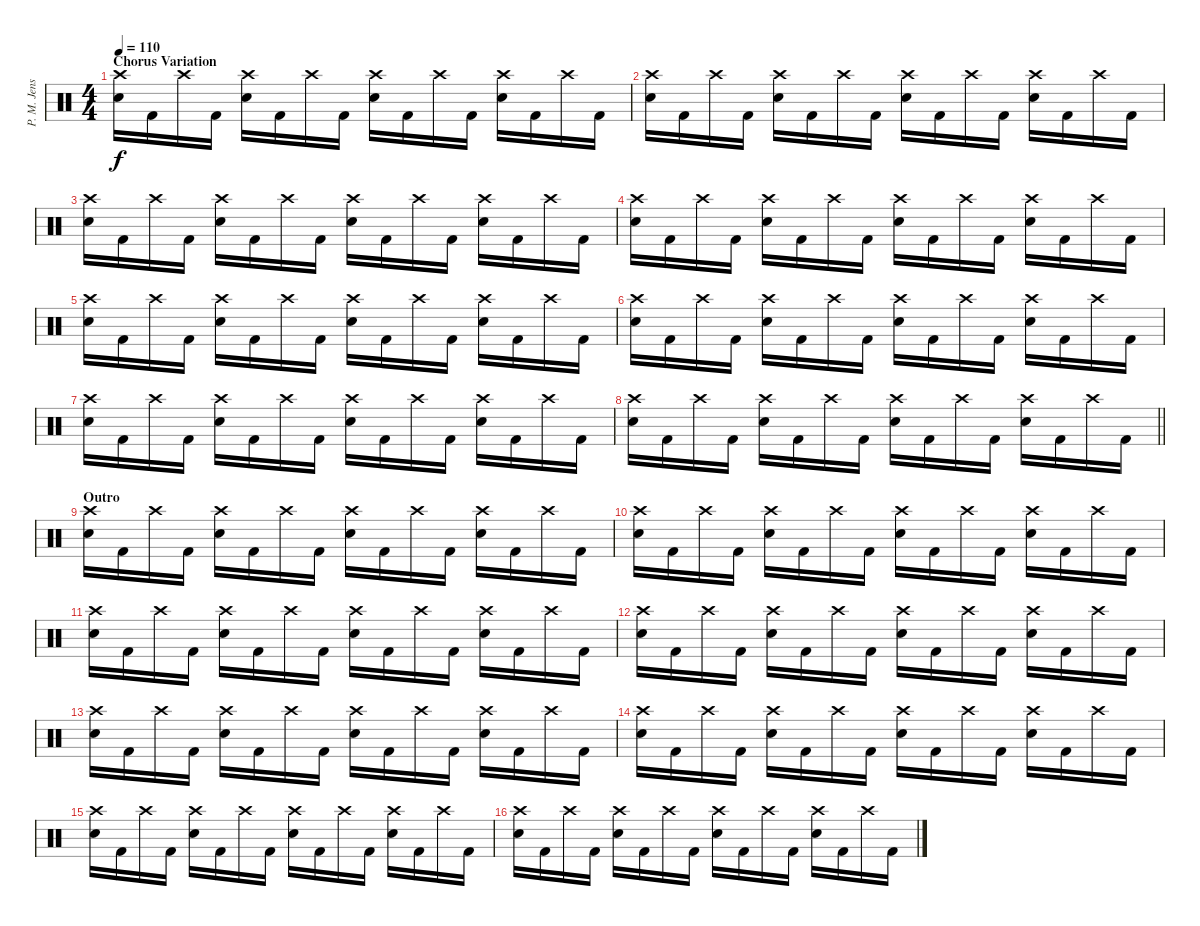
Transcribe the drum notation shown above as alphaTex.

\track ("P. M. Jensen" "P. M. Jens") {instrument percussion}
\staff {score}
\articulation defaults
\ts (4 4)
\section ("" "Chorus Variation")
\tempo 110
\clef neutral
\ks c
("Crash high (hit)" "Electric Snare (hit)").16{dy f} "Kick (hit) 2".16 "Crash high (hit)".16 "Kick (hit) 2".16 ("Crash high (hit)" "Electric Snare (hit)").16 "Kick (hit) 2".16 "Crash high (hit)".16 "Kick (hit) 2".16 ("Crash high (hit)" "Electric Snare (hit)").16 "Kick (hit) 2".16 "Crash high (hit)".16 "Kick (hit) 2".16 ("Crash high (hit)" "Electric Snare (hit)").16 "Kick (hit) 2".16 "Crash high (hit)".16 "Kick (hit) 2".16 |
("Crash high (hit)" "Electric Snare (hit)").16 "Kick (hit) 2".16 "Crash high (hit)".16 "Kick (hit) 2".16 ("Crash high (hit)" "Electric Snare (hit)").16 "Kick (hit) 2".16 "Crash high (hit)".16 "Kick (hit) 2".16 ("Crash high (hit)" "Electric Snare (hit)").16 "Kick (hit) 2".16 "Crash high (hit)".16 "Kick (hit) 2".16 ("Crash high (hit)" "Electric Snare (hit)").16 "Kick (hit) 2".16 "Crash high (hit)".16 "Kick (hit) 2".16 |
("Crash high (hit)" "Electric Snare (hit)").16 "Kick (hit) 2".16 "Crash high (hit)".16 "Kick (hit) 2".16 ("Crash high (hit)" "Electric Snare (hit)").16 "Kick (hit) 2".16 "Crash high (hit)".16 "Kick (hit) 2".16 ("Crash high (hit)" "Electric Snare (hit)").16 "Kick (hit) 2".16 "Crash high (hit)".16 "Kick (hit) 2".16 ("Crash high (hit)" "Electric Snare (hit)").16 "Kick (hit) 2".16 "Crash high (hit)".16 "Kick (hit) 2".16 |
("Crash high (hit)" "Electric Snare (hit)").16 "Kick (hit) 2".16 "Crash high (hit)".16 "Kick (hit) 2".16 ("Crash high (hit)" "Electric Snare (hit)").16 "Kick (hit) 2".16 "Crash high (hit)".16 "Kick (hit) 2".16 ("Crash high (hit)" "Electric Snare (hit)").16 "Kick (hit) 2".16 "Crash high (hit)".16 "Kick (hit) 2".16 ("Crash high (hit)" "Electric Snare (hit)").16 "Kick (hit) 2".16 "Crash high (hit)".16 "Kick (hit) 2".16 |
("Crash high (hit)" "Electric Snare (hit)").16 "Kick (hit) 2".16 "Crash high (hit)".16 "Kick (hit) 2".16 ("Crash high (hit)" "Electric Snare (hit)").16 "Kick (hit) 2".16 "Crash high (hit)".16 "Kick (hit) 2".16 ("Crash high (hit)" "Electric Snare (hit)").16 "Kick (hit) 2".16 "Crash high (hit)".16 "Kick (hit) 2".16 ("Crash high (hit)" "Electric Snare (hit)").16 "Kick (hit) 2".16 "Crash high (hit)".16 "Kick (hit) 2".16 |
("Crash high (hit)" "Electric Snare (hit)").16 "Kick (hit) 2".16 "Crash high (hit)".16 "Kick (hit) 2".16 ("Crash high (hit)" "Electric Snare (hit)").16 "Kick (hit) 2".16 "Crash high (hit)".16 "Kick (hit) 2".16 ("Crash high (hit)" "Electric Snare (hit)").16 "Kick (hit) 2".16 "Crash high (hit)".16 "Kick (hit) 2".16 ("Crash high (hit)" "Electric Snare (hit)").16 "Kick (hit) 2".16 "Crash high (hit)".16 "Kick (hit) 2".16 |
("Crash high (hit)" "Electric Snare (hit)").16 "Kick (hit) 2".16 "Crash high (hit)".16 "Kick (hit) 2".16 ("Crash high (hit)" "Electric Snare (hit)").16 "Kick (hit) 2".16 "Crash high (hit)".16 "Kick (hit) 2".16 ("Crash high (hit)" "Electric Snare (hit)").16 "Kick (hit) 2".16 "Crash high (hit)".16 "Kick (hit) 2".16 ("Crash high (hit)" "Electric Snare (hit)").16 "Kick (hit) 2".16 "Crash high (hit)".16 "Kick (hit) 2".16 |
\barLineRight lightlight
("Crash high (hit)" "Electric Snare (hit)").16 "Kick (hit) 2".16 "Crash high (hit)".16 "Kick (hit) 2".16 ("Crash high (hit)" "Electric Snare (hit)").16 "Kick (hit) 2".16 "Crash high (hit)".16 "Kick (hit) 2".16 ("Crash high (hit)" "Electric Snare (hit)").16 "Kick (hit) 2".16 "Crash high (hit)".16 "Kick (hit) 2".16 ("Crash high (hit)" "Electric Snare (hit)").16 "Kick (hit) 2".16 "Crash high (hit)".16 "Kick (hit) 2".16 |
\section ("" "Outro")
("Crash high (hit)" "Electric Snare (hit)").16 "Kick (hit) 2".16 "Crash high (hit)".16 "Kick (hit) 2".16 ("Crash high (hit)" "Electric Snare (hit)").16 "Kick (hit) 2".16 "Crash high (hit)".16 "Kick (hit) 2".16 ("Crash high (hit)" "Electric Snare (hit)").16 "Kick (hit) 2".16 "Crash high (hit)".16 "Kick (hit) 2".16 ("Crash high (hit)" "Electric Snare (hit)").16 "Kick (hit) 2".16 "Crash high (hit)".16 "Kick (hit) 2".16 |
("Crash high (hit)" "Electric Snare (hit)").16 "Kick (hit) 2".16 "Crash high (hit)".16 "Kick (hit) 2".16 ("Crash high (hit)" "Electric Snare (hit)").16 "Kick (hit) 2".16 "Crash high (hit)".16 "Kick (hit) 2".16 ("Crash high (hit)" "Electric Snare (hit)").16 "Kick (hit) 2".16 "Crash high (hit)".16 "Kick (hit) 2".16 ("Crash high (hit)" "Electric Snare (hit)").16 "Kick (hit) 2".16 "Crash high (hit)".16 "Kick (hit) 2".16 |
("Crash high (hit)" "Electric Snare (hit)").16 "Kick (hit) 2".16 "Crash high (hit)".16 "Kick (hit) 2".16 ("Crash high (hit)" "Electric Snare (hit)").16 "Kick (hit) 2".16 "Crash high (hit)".16 "Kick (hit) 2".16 ("Crash high (hit)" "Electric Snare (hit)").16 "Kick (hit) 2".16 "Crash high (hit)".16 "Kick (hit) 2".16 ("Crash high (hit)" "Electric Snare (hit)").16 "Kick (hit) 2".16 "Crash high (hit)".16 "Kick (hit) 2".16 |
("Crash high (hit)" "Electric Snare (hit)").16 "Kick (hit) 2".16 "Crash high (hit)".16 "Kick (hit) 2".16 ("Crash high (hit)" "Electric Snare (hit)").16 "Kick (hit) 2".16 "Crash high (hit)".16 "Kick (hit) 2".16 ("Crash high (hit)" "Electric Snare (hit)").16 "Kick (hit) 2".16 "Crash high (hit)".16 "Kick (hit) 2".16 ("Crash high (hit)" "Electric Snare (hit)").16 "Kick (hit) 2".16 "Crash high (hit)".16 "Kick (hit) 2".16 |
("Crash high (hit)" "Electric Snare (hit)").16 "Kick (hit) 2".16 "Crash high (hit)".16 "Kick (hit) 2".16 ("Crash high (hit)" "Electric Snare (hit)").16 "Kick (hit) 2".16 "Crash high (hit)".16 "Kick (hit) 2".16 ("Crash high (hit)" "Electric Snare (hit)").16 "Kick (hit) 2".16 "Crash high (hit)".16 "Kick (hit) 2".16 ("Crash high (hit)" "Electric Snare (hit)").16 "Kick (hit) 2".16 "Crash high (hit)".16 "Kick (hit) 2".16 |
("Crash high (hit)" "Electric Snare (hit)").16 "Kick (hit) 2".16 "Crash high (hit)".16 "Kick (hit) 2".16 ("Crash high (hit)" "Electric Snare (hit)").16 "Kick (hit) 2".16 "Crash high (hit)".16 "Kick (hit) 2".16 ("Crash high (hit)" "Electric Snare (hit)").16 "Kick (hit) 2".16 "Crash high (hit)".16 "Kick (hit) 2".16 ("Crash high (hit)" "Electric Snare (hit)").16 "Kick (hit) 2".16 "Crash high (hit)".16 "Kick (hit) 2".16 |
("Crash high (hit)" "Electric Snare (hit)").16 "Kick (hit) 2".16 "Crash high (hit)".16 "Kick (hit) 2".16 ("Crash high (hit)" "Electric Snare (hit)").16 "Kick (hit) 2".16 "Crash high (hit)".16 "Kick (hit) 2".16 ("Crash high (hit)" "Electric Snare (hit)").16 "Kick (hit) 2".16 "Crash high (hit)".16 "Kick (hit) 2".16 ("Crash high (hit)" "Electric Snare (hit)").16 "Kick (hit) 2".16 "Crash high (hit)".16 "Kick (hit) 2".16 |
("Crash high (hit)" "Electric Snare (hit)").16 "Kick (hit) 2".16 "Crash high (hit)".16 "Kick (hit) 2".16 ("Crash high (hit)" "Electric Snare (hit)").16 "Kick (hit) 2".16 "Crash high (hit)".16 "Kick (hit) 2".16 ("Crash high (hit)" "Electric Snare (hit)").16 "Kick (hit) 2".16 "Crash high (hit)".16 "Kick (hit) 2".16 ("Crash high (hit)" "Electric Snare (hit)").16 "Kick (hit) 2".16 "Crash high (hit)".16 "Kick (hit) 2".16
